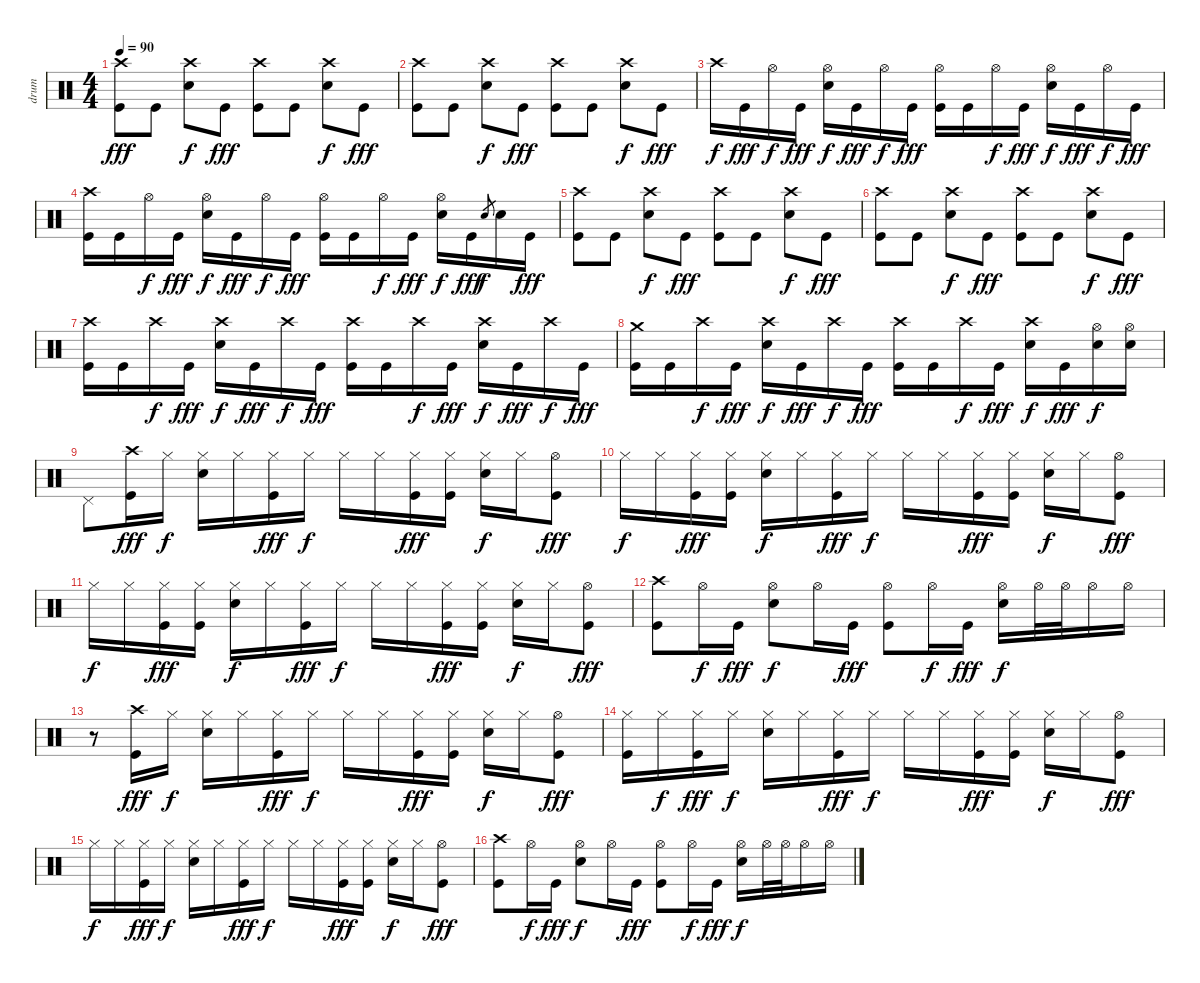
\track ("drum" "drum") {instrument percussion}
\staff {score}
\articulation defaults
\ts (4 4)
\tempo 90
\clef neutral
\ks c
("Crash high (hit)" "Kick (hit)").8{dy fff} "Kick (hit)".8 ("Crash high (hit)" "Electric Snare (hit)").8{dy f} "Kick (hit)".8{dy fff} ("Crash high (hit)" "Kick (hit)").8 "Kick (hit)".8 ("Crash high (hit)" "Electric Snare (hit)").8{dy f} "Kick (hit)".8{dy fff} |
("Crash high (hit)" "Kick (hit)").8 "Kick (hit)".8 ("Crash high (hit)" "Electric Snare (hit)").8{dy f} "Kick (hit)".8{dy fff} ("Crash high (hit)" "Kick (hit)").8 "Kick (hit)".8 ("Crash high (hit)" "Electric Snare (hit)").8{dy f} "Kick (hit)".8{dy fff} |
"Crash high (hit)".16{dy f} "Kick (hit)".16{dy fff} "Hi-Hat (open)".16{dy f} "Kick (hit)".16{dy fff} ("Hi-Hat (open)" "Electric Snare (hit)").16{dy f} "Kick (hit)".16{dy fff} "Hi-Hat (open)".16{dy f} "Kick (hit)".16{dy fff} ("Hi-Hat (open)" "Kick (hit)").16 "Kick (hit)".16 "Hi-Hat (open)".16{dy f} "Kick (hit)".16{dy fff} ("Hi-Hat (open)" "Electric Snare (hit)").16{dy f} "Kick (hit)".16{dy fff} "Hi-Hat (open)".16{dy f} "Kick (hit)".16{dy fff} |
("Crash high (hit)" "Kick (hit)").16 "Kick (hit)".16 "Hi-Hat (open)".16{dy f} "Kick (hit)".16{dy fff} ("Hi-Hat (open)" "Electric Snare (hit)").16{dy f} "Kick (hit)".16{dy fff} "Hi-Hat (open)".16{dy f} "Kick (hit)".16{dy fff} ("Hi-Hat (open)" "Kick (hit)").16 "Kick (hit)".16 "Hi-Hat (open)".16{dy f} "Kick (hit)".16{dy fff} ("Hi-Hat (open)" "Electric Snare (hit)").16{dy f} "Kick (hit)".16{dy fff} "Electric Snare (hit)".8{gr dy f} "Electric Snare (hit)".16 "Kick (hit)".16{dy fff} |
("Crash high (hit)" "Kick (hit)").8 "Kick (hit)".8 ("Crash high (hit)" "Electric Snare (hit)").8{dy f} "Kick (hit)".8{dy fff} ("Crash high (hit)" "Kick (hit)").8 "Kick (hit)".8 ("Crash high (hit)" "Electric Snare (hit)").8{dy f} "Kick (hit)".8{dy fff} |
("Crash high (hit)" "Kick (hit)").8 "Kick (hit)".8 ("Crash high (hit)" "Electric Snare (hit)").8{dy f} "Kick (hit)".8{dy fff} ("Crash high (hit)" "Kick (hit)").8 "Kick (hit)".8 ("Crash high (hit)" "Electric Snare (hit)").8{dy f} "Kick (hit)".8{dy fff} |
("Crash high (hit)" "Kick (hit)").16 "Kick (hit)".16 "Crash high (hit)".16{dy f} "Kick (hit)".16{dy fff} ("Crash high (hit)" "Electric Snare (hit)").16{dy f} "Kick (hit)".16{dy fff} "Crash high (hit)".16{dy f} "Kick (hit)".16{dy fff} ("Crash high (hit)" "Kick (hit)").16 "Kick (hit)".16 "Crash high (hit)".16{dy f} "Kick (hit)".16{dy fff} ("Crash high (hit)" "Electric Snare (hit)").16{dy f} "Kick (hit)".16{dy fff} "Crash high (hit)".16{dy f} "Kick (hit)".16{dy fff} |
("Crash medium (hit)" "Kick (hit)").16 "Kick (hit)".16 "Crash high (hit)".16{dy f} "Kick (hit)".16{dy fff} ("Crash high (hit)" "Electric Snare (hit)").16{dy f} "Kick (hit)".16{dy fff} "Crash high (hit)".16{dy f} "Kick (hit)".16{dy fff} ("Crash high (hit)" "Kick (hit)").16 "Kick (hit)".16 "Crash high (hit)".16{dy f} "Kick (hit)".16{dy fff} ("Crash high (hit)" "Electric Snare (hit)").16{dy f} "Kick (hit)".16{dy fff} ("Hi-Hat (open)" "Electric Snare (hit)").16{dy f} ("Hi-Hat (open)" "Electric Snare (hit)").16 |
"Pedal Hi-Hat (hit)".8 ("Crash high (hit)" "Kick (hit)").16{dy fff} "Hi-Hat (closed)".16{dy f} ("Hi-Hat (closed)" "Electric Snare (hit)").16 "Hi-Hat (closed)".16 ("Hi-Hat (closed)" "Kick (hit)").16{dy fff} "Hi-Hat (closed)".16{dy f} "Hi-Hat (closed)".16 "Hi-Hat (closed)".16 ("Hi-Hat (closed)" "Kick (hit)").16{dy fff} ("Hi-Hat (closed)" "Kick (hit)").16 ("Hi-Hat (closed)" "Electric Snare (hit)").16{dy f} "Hi-Hat (closed)".16 ("Hi-Hat (open)" "Kick (hit)").8{dy fff} |
"Hi-Hat (closed)".16{dy f} "Hi-Hat (closed)".16 ("Hi-Hat (closed)" "Kick (hit)").16{dy fff} ("Hi-Hat (closed)" "Kick (hit)").16 ("Hi-Hat (closed)" "Electric Snare (hit)").16{dy f} "Hi-Hat (closed)".16 ("Hi-Hat (closed)" "Kick (hit)").16{dy fff} "Hi-Hat (closed)".16{dy f} "Hi-Hat (closed)".16 "Hi-Hat (closed)".16 ("Hi-Hat (closed)" "Kick (hit)").16{dy fff} ("Hi-Hat (closed)" "Kick (hit)").16 ("Hi-Hat (closed)" "Electric Snare (hit)").16{dy f} "Hi-Hat (closed)".16 ("Hi-Hat (open)" "Kick (hit)").8{dy fff} |
"Hi-Hat (closed)".16{dy f} "Hi-Hat (closed)".16 ("Hi-Hat (closed)" "Kick (hit)").16{dy fff} ("Hi-Hat (closed)" "Kick (hit)").16 ("Hi-Hat (closed)" "Electric Snare (hit)").16{dy f} "Hi-Hat (closed)".16 ("Hi-Hat (closed)" "Kick (hit)").16{dy fff} "Hi-Hat (closed)".16{dy f} "Hi-Hat (closed)".16 "Hi-Hat (closed)".16 ("Hi-Hat (closed)" "Kick (hit)").16{dy fff} ("Hi-Hat (closed)" "Kick (hit)").16 ("Hi-Hat (closed)" "Electric Snare (hit)").16{dy f} "Hi-Hat (closed)".16 ("Hi-Hat (open)" "Kick (hit)").8{dy fff} |
("Crash high (hit)" "Kick (hit)").8 "Hi-Hat (open)".16{dy f} "Kick (hit)".16{dy fff} ("Hi-Hat (open)" "Electric Snare (hit)").8{dy f} "Hi-Hat (open)".16 "Kick (hit)".16{dy fff} ("Hi-Hat (open)" "Kick (hit)").8 "Hi-Hat (open)".16{dy f} "Kick (hit)".16{dy fff} ("Hi-Hat (open)" "Electric Snare (hit)").16{dy f} "Hi-Hat (open)".32 "Hi-Hat (open)".32 "Hi-Hat (open)".16 "Hi-Hat (open)".16 |
r.8 ("Crash high (hit)" "Kick (hit)").16{dy fff} "Hi-Hat (closed)".16{dy f} ("Hi-Hat (closed)" "Electric Snare (hit)").16 "Hi-Hat (closed)".16 ("Hi-Hat (closed)" "Kick (hit)").16{dy fff} "Hi-Hat (closed)".16{dy f} "Hi-Hat (closed)".16 "Hi-Hat (closed)".16 ("Hi-Hat (closed)" "Kick (hit)").16{dy fff} ("Hi-Hat (closed)" "Kick (hit)").16 ("Hi-Hat (closed)" "Electric Snare (hit)").16{dy f} "Hi-Hat (closed)".16 ("Hi-Hat (open)" "Kick (hit)").8{dy fff} |
("Hi-Hat (closed)" "Kick (hit)").16 "Hi-Hat (closed)".16{dy f} ("Hi-Hat (closed)" "Kick (hit)").16{dy fff} "Hi-Hat (closed)".16{dy f} ("Hi-Hat (closed)" "Electric Snare (hit)").16 "Hi-Hat (closed)".16 ("Hi-Hat (closed)" "Kick (hit)").16{dy fff} "Hi-Hat (closed)".16{dy f} "Hi-Hat (closed)".16 "Hi-Hat (closed)".16 ("Hi-Hat (closed)" "Kick (hit)").16{dy fff} ("Hi-Hat (closed)" "Kick (hit)").16 ("Hi-Hat (closed)" "Electric Snare (hit)").16{dy f} "Hi-Hat (closed)".16 ("Hi-Hat (open)" "Kick (hit)").8{dy fff} |
"Hi-Hat (closed)".16{dy f} "Hi-Hat (closed)".16 ("Hi-Hat (closed)" "Kick (hit)").16{dy fff} "Hi-Hat (closed)".16{dy f} ("Hi-Hat (closed)" "Electric Snare (hit)").16 "Hi-Hat (closed)".16 ("Hi-Hat (closed)" "Kick (hit)").16{dy fff} "Hi-Hat (closed)".16{dy f} "Hi-Hat (closed)".16 "Hi-Hat (closed)".16 ("Hi-Hat (closed)" "Kick (hit)").16{dy fff} ("Hi-Hat (closed)" "Kick (hit)").16 ("Hi-Hat (closed)" "Electric Snare (hit)").16{dy f} "Hi-Hat (closed)".16 ("Hi-Hat (open)" "Kick (hit)").8{dy fff} |
("Crash high (hit)" "Kick (hit)").8 "Hi-Hat (open)".16{dy f} "Kick (hit)".16{dy fff} ("Hi-Hat (open)" "Electric Snare (hit)").8{dy f} "Hi-Hat (open)".16 "Kick (hit)".16{dy fff} ("Hi-Hat (open)" "Kick (hit)").8 "Hi-Hat (open)".16{dy f} "Kick (hit)".16{dy fff} ("Hi-Hat (open)" "Electric Snare (hit)").16{dy f} "Hi-Hat (open)".32 "Hi-Hat (open)".32 "Hi-Hat (open)".16 "Hi-Hat (open)".16
